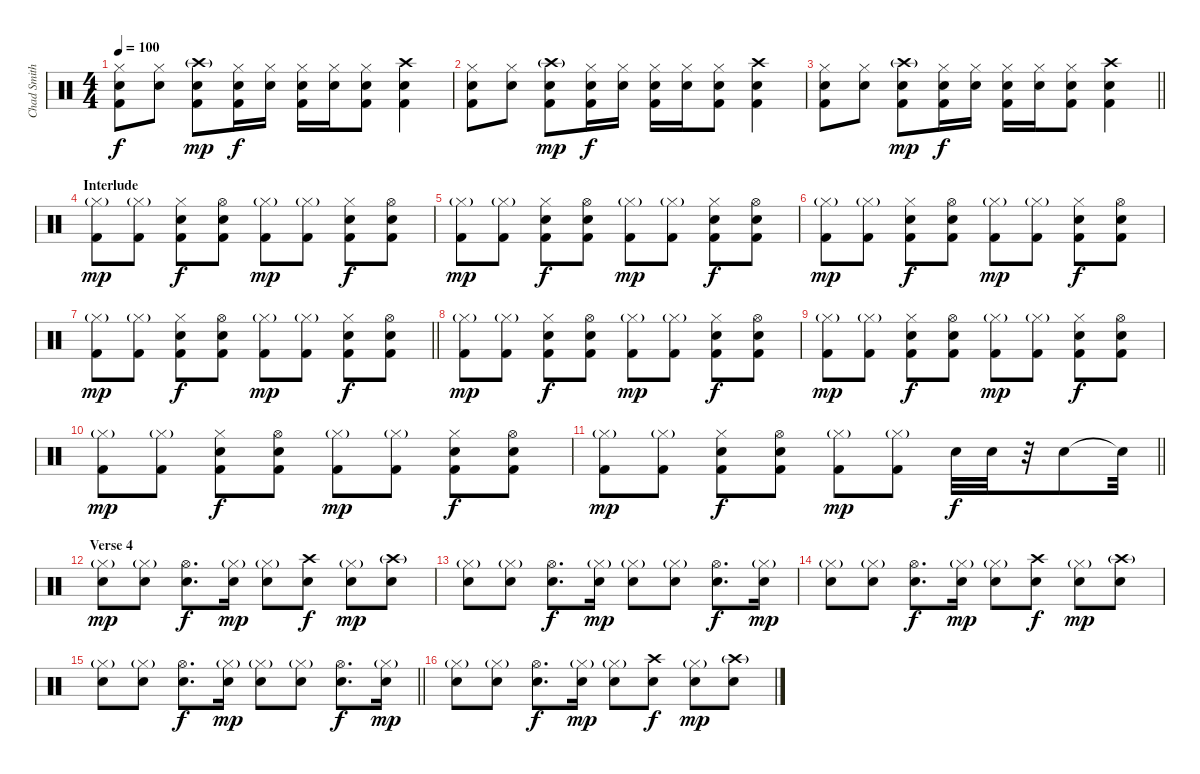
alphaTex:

\track ("Chad Smith - Drums" "Chad Smith") {instrument percussion}
\staff {score}
\articulation defaults
\ts (4 4)
\tempo 100
\clef neutral
\ks c
("Hi-Hat (closed)" "Electric Snare (hit)" "Kick (hit) 2").8{dy f} ("Hi-Hat (closed)" "Electric Snare (hit)").8 ("Crash high (hit)"{g} "Electric Snare (hit)" "Kick (hit) 2").8{dy mp} ("Hi-Hat (closed)" "Electric Snare (hit)" "Kick (hit) 2").16{dy f} ("Hi-Hat (closed)" "Electric Snare (hit)").16 ("Hi-Hat (closed)" "Electric Snare (hit)" "Kick (hit) 2").16 ("Hi-Hat (closed)" "Electric Snare (hit)").16 ("Hi-Hat (closed)" "Electric Snare (hit)" "Kick (hit) 2").8 ("Crash high (hit)" "Electric Snare (hit)" "Kick (hit) 2").4 |
("Hi-Hat (closed)" "Electric Snare (hit)" "Kick (hit) 2").8 ("Hi-Hat (closed)" "Electric Snare (hit)").8 ("Crash high (hit)"{g} "Electric Snare (hit)" "Kick (hit) 2").8{dy mp} ("Hi-Hat (closed)" "Electric Snare (hit)" "Kick (hit) 2").16{dy f} ("Hi-Hat (closed)" "Electric Snare (hit)").16 ("Hi-Hat (closed)" "Electric Snare (hit)" "Kick (hit) 2").16 ("Hi-Hat (closed)" "Electric Snare (hit)").16 ("Hi-Hat (closed)" "Electric Snare (hit)" "Kick (hit) 2").8 ("Crash high (hit)" "Electric Snare (hit)" "Kick (hit) 2").4 |
\barLineRight lightlight
("Hi-Hat (closed)" "Electric Snare (hit)" "Kick (hit) 2").8 ("Hi-Hat (closed)" "Electric Snare (hit)").8 ("Crash high (hit)"{g} "Electric Snare (hit)" "Kick (hit) 2").8{dy mp} ("Hi-Hat (closed)" "Electric Snare (hit)" "Kick (hit) 2").16{dy f} ("Hi-Hat (closed)" "Electric Snare (hit)").16 ("Hi-Hat (closed)" "Electric Snare (hit)" "Kick (hit) 2").16 ("Hi-Hat (closed)" "Electric Snare (hit)").16 ("Hi-Hat (closed)" "Electric Snare (hit)" "Kick (hit) 2").8 ("Crash high (hit)" "Electric Snare (hit)" "Kick (hit) 2").4 |
\section ("" "Interlude")
("Hi-Hat (closed)"{g} "Kick (hit) 2").8{dy mp} ("Hi-Hat (closed)"{g} "Kick (hit) 2").8 ("Hi-Hat (closed)" "Electric Snare (hit)" "Kick (hit) 2").8{dy f} ("Hi-Hat (open)" "Electric Snare (hit)" "Kick (hit) 2").8 ("Hi-Hat (closed)"{g} "Kick (hit) 2").8{dy mp} ("Hi-Hat (closed)"{g} "Kick (hit) 2").8 ("Hi-Hat (closed)" "Electric Snare (hit)" "Kick (hit) 2").8{dy f} ("Hi-Hat (open)" "Electric Snare (hit)" "Kick (hit) 2").8 |
("Hi-Hat (closed)"{g} "Kick (hit) 2").8{dy mp} ("Hi-Hat (closed)"{g} "Kick (hit) 2").8 ("Hi-Hat (closed)" "Electric Snare (hit)" "Kick (hit) 2").8{dy f} ("Hi-Hat (open)" "Electric Snare (hit)" "Kick (hit) 2").8 ("Hi-Hat (closed)"{g} "Kick (hit) 2").8{dy mp} ("Hi-Hat (closed)"{g} "Kick (hit) 2").8 ("Hi-Hat (closed)" "Electric Snare (hit)" "Kick (hit) 2").8{dy f} ("Hi-Hat (open)" "Electric Snare (hit)" "Kick (hit) 2").8 |
("Hi-Hat (closed)"{g} "Kick (hit) 2").8{dy mp} ("Hi-Hat (closed)"{g} "Kick (hit) 2").8 ("Hi-Hat (closed)" "Electric Snare (hit)" "Kick (hit) 2").8{dy f} ("Hi-Hat (open)" "Electric Snare (hit)" "Kick (hit) 2").8 ("Hi-Hat (closed)"{g} "Kick (hit) 2").8{dy mp} ("Hi-Hat (closed)"{g} "Kick (hit) 2").8 ("Hi-Hat (closed)" "Electric Snare (hit)" "Kick (hit) 2").8{dy f} ("Hi-Hat (open)" "Electric Snare (hit)" "Kick (hit) 2").8 |
\barLineRight lightlight
("Hi-Hat (closed)"{g} "Kick (hit) 2").8{dy mp} ("Hi-Hat (closed)"{g} "Kick (hit) 2").8 ("Hi-Hat (closed)" "Electric Snare (hit)" "Kick (hit) 2").8{dy f} ("Hi-Hat (open)" "Electric Snare (hit)" "Kick (hit) 2").8 ("Hi-Hat (closed)"{g} "Kick (hit) 2").8{dy mp} ("Hi-Hat (closed)"{g} "Kick (hit) 2").8 ("Hi-Hat (closed)" "Electric Snare (hit)" "Kick (hit) 2").8{dy f} ("Hi-Hat (open)" "Electric Snare (hit)" "Kick (hit) 2").8 |
("Hi-Hat (closed)"{g} "Kick (hit) 2").8{dy mp} ("Hi-Hat (closed)"{g} "Kick (hit) 2").8 ("Hi-Hat (closed)" "Electric Snare (hit)" "Kick (hit) 2").8{dy f} ("Hi-Hat (open)" "Electric Snare (hit)" "Kick (hit) 2").8 ("Hi-Hat (closed)"{g} "Kick (hit) 2").8{dy mp} ("Hi-Hat (closed)"{g} "Kick (hit) 2").8 ("Hi-Hat (closed)" "Electric Snare (hit)" "Kick (hit) 2").8{dy f} ("Hi-Hat (open)" "Electric Snare (hit)" "Kick (hit) 2").8 |
("Hi-Hat (closed)"{g} "Kick (hit) 2").8{dy mp} ("Hi-Hat (closed)"{g} "Kick (hit) 2").8 ("Hi-Hat (closed)" "Electric Snare (hit)" "Kick (hit) 2").8{dy f} ("Hi-Hat (open)" "Electric Snare (hit)" "Kick (hit) 2").8 ("Hi-Hat (closed)"{g} "Kick (hit) 2").8{dy mp} ("Hi-Hat (closed)"{g} "Kick (hit) 2").8 ("Hi-Hat (closed)" "Electric Snare (hit)" "Kick (hit) 2").8{dy f} ("Hi-Hat (open)" "Electric Snare (hit)" "Kick (hit) 2").8 |
("Hi-Hat (closed)"{g} "Kick (hit) 2").8{dy mp} ("Hi-Hat (closed)"{g} "Kick (hit) 2").8 ("Hi-Hat (closed)" "Electric Snare (hit)" "Kick (hit) 2").8{dy f} ("Hi-Hat (open)" "Electric Snare (hit)" "Kick (hit) 2").8 ("Hi-Hat (closed)"{g} "Kick (hit) 2").8{dy mp} ("Hi-Hat (closed)"{g} "Kick (hit) 2").8 ("Hi-Hat (closed)" "Electric Snare (hit)" "Kick (hit) 2").8{dy f} ("Hi-Hat (open)" "Electric Snare (hit)" "Kick (hit) 2").8 |
\barLineRight lightlight
("Hi-Hat (closed)"{g} "Kick (hit) 2").8{dy mp} ("Hi-Hat (closed)"{g} "Kick (hit) 2").8 ("Hi-Hat (closed)" "Electric Snare (hit)" "Kick (hit) 2").8{dy f} ("Hi-Hat (open)" "Electric Snare (hit)" "Kick (hit) 2").8 ("Hi-Hat (closed)"{g} "Kick (hit) 2").8{dy mp} ("Hi-Hat (closed)"{g} "Kick (hit) 2").8 "Snare (hit) 2".32{dy f} "Electric Snare (hit)".32 r.32 "Snare (hit) 2".8 "Snare (hit)"{t}.32 |
\section ("" "Verse 4")
("Hi-Hat (closed)"{g} "Snare (hit) 2").8{dy mp} ("Hi-Hat (closed)"{g} "Snare (hit) 2").8 ("Hi-Hat (open)" "Snare (hit) 2").8{d dy f} ("Hi-Hat (closed)"{g} "Snare (hit) 2").16{dy mp} ("Hi-Hat (closed)"{g} "Snare (hit) 2").8 ("Crash high (hit)" "Snare (hit) 2").8{dy f} ("Hi-Hat (closed)"{g} "Snare (hit) 2").8{dy mp} ("Crash high (hit)"{g} "Snare (hit) 2").8 |
("Hi-Hat (closed)"{g} "Snare (hit) 2").8 ("Hi-Hat (closed)"{g} "Snare (hit) 2").8 ("Hi-Hat (open)" "Snare (hit) 2").8{d dy f} ("Hi-Hat (closed)"{g} "Snare (hit) 2").16{dy mp} ("Hi-Hat (closed)"{g} "Snare (hit) 2").8 ("Hi-Hat (closed)"{g} "Snare (hit) 2").8 ("Hi-Hat (open)" "Snare (hit) 2").8{d dy f} ("Hi-Hat (closed)"{g} "Snare (hit) 2").16{dy mp} |
("Hi-Hat (closed)"{g} "Snare (hit) 2").8 ("Hi-Hat (closed)"{g} "Snare (hit) 2").8 ("Hi-Hat (open)" "Snare (hit) 2").8{d dy f} ("Hi-Hat (closed)"{g} "Snare (hit) 2").16{dy mp} ("Hi-Hat (closed)"{g} "Snare (hit) 2").8 ("Crash high (hit)" "Snare (hit) 2").8{dy f} ("Hi-Hat (closed)"{g} "Snare (hit) 2").8{dy mp} ("Crash high (hit)"{g} "Snare (hit) 2").8 |
\barLineRight lightlight
("Hi-Hat (closed)"{g} "Snare (hit) 2").8 ("Hi-Hat (closed)"{g} "Snare (hit) 2").8 ("Hi-Hat (open)" "Snare (hit) 2").8{d dy f} ("Hi-Hat (closed)"{g} "Snare (hit) 2").16{dy mp} ("Hi-Hat (closed)"{g} "Snare (hit) 2").8 ("Hi-Hat (closed)"{g} "Snare (hit) 2").8 ("Hi-Hat (open)" "Snare (hit) 2").8{d dy f} ("Hi-Hat (closed)"{g} "Snare (hit) 2").16{dy mp} |
("Hi-Hat (closed)"{g} "Snare (hit) 2").8 ("Hi-Hat (closed)"{g} "Snare (hit) 2").8 ("Hi-Hat (open)" "Snare (hit) 2").8{d dy f} ("Hi-Hat (closed)"{g} "Snare (hit) 2").16{dy mp} ("Hi-Hat (closed)"{g} "Snare (hit) 2").8 ("Crash high (hit)" "Snare (hit) 2").8{dy f} ("Hi-Hat (closed)"{g} "Snare (hit) 2").8{dy mp} ("Crash high (hit)"{g} "Snare (hit) 2").8
